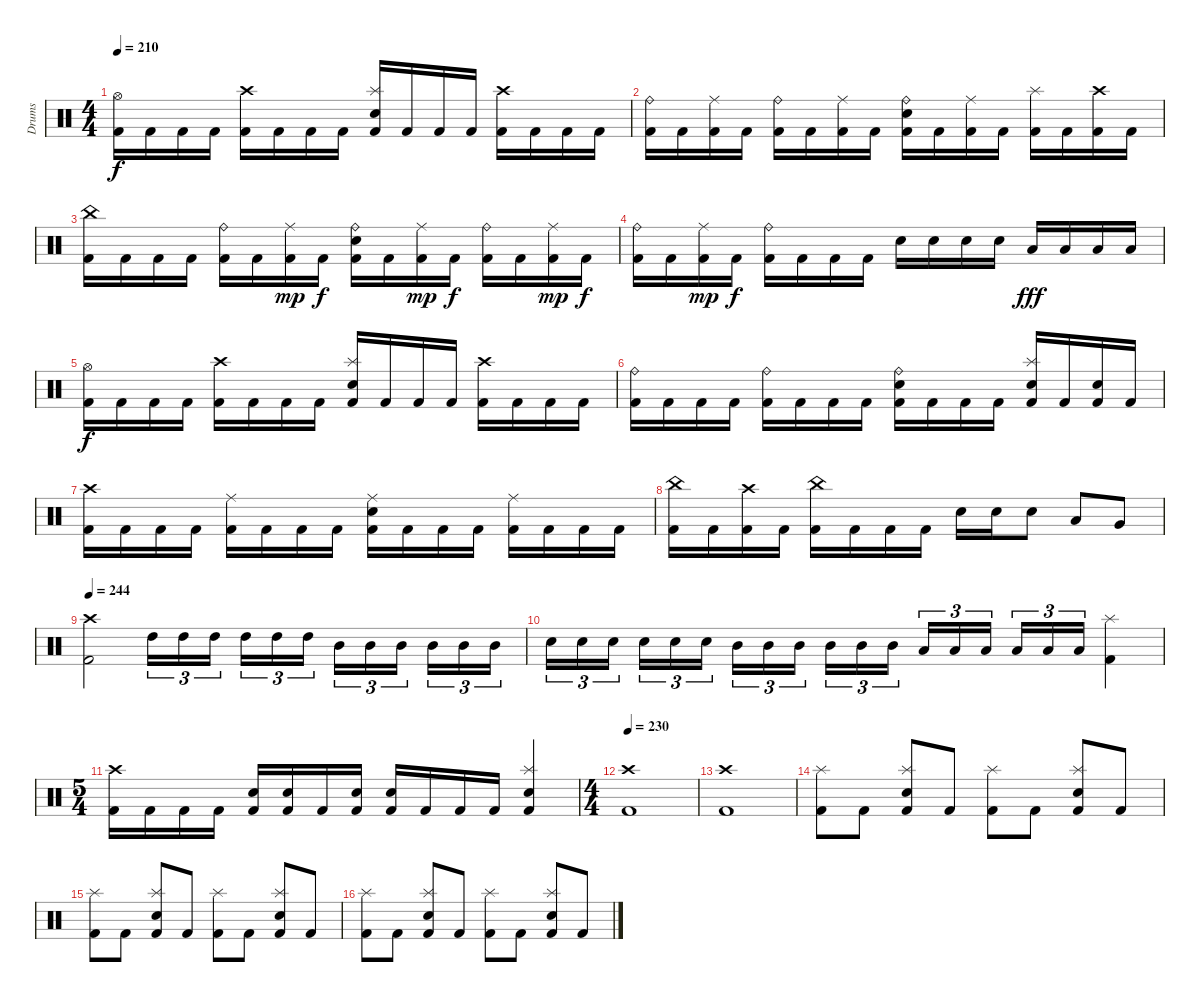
\track ("Drums" "Drums") {instrument percussion}
\staff {score}
\articulation defaults
\ts (4 4)
\section ("" "")
\tempo 210
\clef neutral
\ks c
("Hi-Hat (open)" "Kick (hit) 2").16{dy f} "Kick (hit) 2".16 "Kick (hit) 2".16 "Kick (hit) 2".16 ("Crash high (hit)" "Kick (hit) 2").16 "Kick (hit) 2".16 "Kick (hit) 2".16 "Kick (hit) 2".16 ("Splash (hit)" "Electric Snare (hit)" "Kick (hit) 2").16 "Kick (hit) 2".16 "Kick (hit) 2".16 "Kick (hit) 2".16 ("Crash high (hit)" "Kick (hit) 2").16 "Kick (hit) 2".16 "Kick (hit) 2".16 "Kick (hit) 2".16 |
("Ride (bell)" "Kick (hit) 2").16 "Kick (hit) 2".16 ("Ride (middle)" "Kick (hit) 2").16 "Kick (hit) 2".16 ("Ride (bell)" "Kick (hit) 2").16 "Kick (hit) 2".16 ("Ride (middle)" "Kick (hit) 2").16 "Kick (hit) 2".16 ("Ride (bell)" "Electric Snare (hit)" "Kick (hit) 2").16 "Kick (hit) 2".16 ("Ride (middle)" "Kick (hit) 2").16 "Kick (hit) 2".16 ("Splash (hit)" "Kick (hit) 2").16 "Kick (hit) 2".16 ("Crash high (hit)" "Kick (hit) 2").16 "Kick (hit) 2".16 |
("China (hit)" "Kick (hit) 2").16 "Kick (hit) 2".16 "Kick (hit) 2".16 "Kick (hit) 2".16 ("Ride (bell)" "Kick (hit) 2").16 "Kick (hit) 2".16 ("Ride (middle)" "Kick (hit) 2").16{dy mp} "Kick (hit) 2".16{dy f} ("Ride (bell)" "Electric Snare (hit)" "Kick (hit) 2").16 "Kick (hit) 2".16 ("Ride (middle)" "Kick (hit) 2").16{dy mp} "Kick (hit) 2".16{dy f} ("Ride (bell)" "Kick (hit) 2").16 "Kick (hit) 2".16 ("Ride (middle)" "Kick (hit) 2").16{dy mp} "Kick (hit) 2".16{dy f} |
("Ride (bell)" "Kick (hit) 2").16 "Kick (hit) 2".16 ("Ride (middle)" "Kick (hit) 2").16{dy mp} "Kick (hit) 2".16{dy f} ("Ride (bell)" "Kick (hit) 2").16 "Kick (hit) 2".16 "Kick (hit) 2".16 "Kick (hit) 2".16 "Electric Snare (hit)".16 "Electric Snare (hit)".16 "Electric Snare (hit)".16 "Electric Snare (hit)".16 "Low Tom (hit)".16{dy fff} "Low Tom (hit)".16 "Low Tom (hit)".16 "Low Tom (hit)".16 |
("Hi-Hat (open)" "Kick (hit) 2").16{dy f} "Kick (hit) 2".16 "Kick (hit) 2".16 "Kick (hit) 2".16 ("Crash high (hit)" "Kick (hit) 2").16 "Kick (hit) 2".16 "Kick (hit) 2".16 "Kick (hit) 2".16 ("Splash (hit)" "Electric Snare (hit)" "Kick (hit) 2").16 "Kick (hit) 2".16 "Kick (hit) 2".16 "Kick (hit) 2".16 ("Crash high (hit)" "Kick (hit) 2").16 "Kick (hit) 2".16 "Kick (hit) 2".16 "Kick (hit) 2".16 |
("Ride (bell)" "Kick (hit) 2").16 "Kick (hit) 2".16 "Kick (hit) 2".16 "Kick (hit) 2".16 ("Ride (bell)" "Kick (hit) 2").16 "Kick (hit) 2".16 "Kick (hit) 2".16 "Kick (hit) 2".16 ("Ride (bell)" "Electric Snare (hit)" "Kick (hit) 2").16 "Kick (hit) 2".16 "Kick (hit) 2".16 "Kick (hit) 2".16 ("Splash (hit)" "Electric Snare (hit)" "Kick (hit) 2").16 "Kick (hit) 2".16 ("Electric Snare (hit)" "Kick (hit) 2").16 "Kick (hit) 2".16 |
("Crash high (hit)" "Kick (hit) 2").16 "Kick (hit) 2".16 "Kick (hit) 2".16 "Kick (hit) 2".16 ("Ride (middle)" "Kick (hit) 2").16 "Kick (hit) 2".16 "Kick (hit) 2".16 "Kick (hit) 2".16 ("Ride (middle)" "Electric Snare (hit)" "Kick (hit) 2").16 "Kick (hit) 2".16 "Kick (hit) 2".16 "Kick (hit) 2".16 ("Ride (middle)" "Kick (hit) 2").16 "Kick (hit) 2".16 "Kick (hit) 2".16 "Kick (hit) 2".16 |
("China (hit)" "Kick (hit) 2").16 "Kick (hit) 2".16 ("Crash high (hit)" "Kick (hit) 2").16 "Kick (hit) 2".16 ("China (hit)" "Kick (hit) 2").16 "Kick (hit) 2".16 "Kick (hit) 2".16 "Kick (hit) 2".16 "Electric Snare (hit)".16 "Electric Snare (hit)".16 "Electric Snare (hit)".8 "Low Tom (hit)".8 "Very Low Tom (hit)".8 |
\section ("" "")
\tempo 244
("Crash high (hit)" "Kick (hit) 2").2 "High Tom (hit)".16{tu (3 2)} "High Tom (hit)".16{tu (3 2)} "High Tom (hit)".16{tu (3 2)} "High Tom (hit)".16{tu (3 2)} "High Tom (hit)".16{tu (3 2)} "High Tom (hit)".16{tu (3 2)} "Mid Tom (hit)".16{tu (3 2)} "Mid Tom (hit)".16{tu (3 2)} "Mid Tom (hit)".16{tu (3 2)} "Mid Tom (hit)".16{tu (3 2)} "Mid Tom (hit)".16{tu (3 2)} "Mid Tom (hit)".16{tu (3 2)} |
"Electric Snare (hit)".16{tu (3 2)} "Electric Snare (hit)".16{tu (3 2)} "Electric Snare (hit)".16{tu (3 2)} "Electric Snare (hit)".16{tu (3 2)} "Electric Snare (hit)".16{tu (3 2)} "Electric Snare (hit)".16{tu (3 2)} "Mid Tom (hit)".16{tu (3 2)} "Mid Tom (hit)".16{tu (3 2)} "Mid Tom (hit)".16{tu (3 2)} "Mid Tom (hit)".16{tu (3 2)} "Mid Tom (hit)".16{tu (3 2)} "Mid Tom (hit)".16{tu (3 2)} "Low Tom (hit)".16{tu (3 2)} "Low Tom (hit)".16{tu (3 2)} "Low Tom (hit)".16{tu (3 2)} "Low Tom (hit)".16{tu (3 2)} "Low Tom (hit)".16{tu (3 2)} "Low Tom (hit)".16{tu (3 2)} ("Splash (hit)" "Kick (hit) 2").4 |
\ts (5 4)
("Crash high (hit)" "Kick (hit) 2").16 "Kick (hit) 2".16 "Kick (hit) 2".16 "Kick (hit) 2".16 ("Electric Snare (hit)" "Kick (hit) 2").16 ("Electric Snare (hit)" "Kick (hit) 2").16 "Kick (hit) 2".16 ("Electric Snare (hit)" "Kick (hit) 2").16 ("Electric Snare (hit)" "Kick (hit) 2").16 "Kick (hit) 2".16 "Kick (hit) 2".16 "Kick (hit) 2".16 ("Splash (hit)" "Electric Snare (hit)" "Kick (hit) 2").4 |
\ts (4 4)
\section ("" "")
\tempo 230
("Crash high (hit)" "Kick (hit) 2").1 |
("Crash high (hit)" "Kick (hit) 2").1 |
\section ("" "")
("Splash (hit)" "Kick (hit) 2").8 "Kick (hit) 2".8 ("Splash (hit)" "Electric Snare (hit)" "Kick (hit) 2").8 "Kick (hit) 2".8 ("Splash (hit)" "Kick (hit) 2").8 "Kick (hit) 2".8 ("Splash (hit)" "Electric Snare (hit)" "Kick (hit) 2").8 "Kick (hit) 2".8 |
("Splash (hit)" "Kick (hit) 2").8 "Kick (hit) 2".8 ("Splash (hit)" "Electric Snare (hit)" "Kick (hit) 2").8 "Kick (hit) 2".8 ("Splash (hit)" "Kick (hit) 2").8 "Kick (hit) 2".8 ("Splash (hit)" "Electric Snare (hit)" "Kick (hit) 2").8 "Kick (hit) 2".8 |
("Splash (hit)" "Kick (hit) 2").8 "Kick (hit) 2".8 ("Splash (hit)" "Electric Snare (hit)" "Kick (hit) 2").8 "Kick (hit) 2".8 ("Splash (hit)" "Kick (hit) 2").8 "Kick (hit) 2".8 ("Splash (hit)" "Electric Snare (hit)" "Kick (hit) 2").8 "Kick (hit) 2".8
